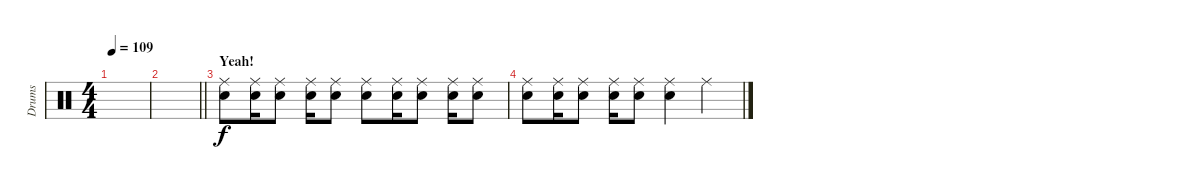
\track ("Drums" "Drums") {instrument percussion}
\staff {score}
\articulation defaults
\ts (4 4)
\tempo 109
\clef neutral
\ks c
|
\barLineRight lightlight
|
\section ("" "Yeah!")
("Ride (middle)" "Electric Snare (hit)").8{volume 4} ("Ride (middle)" "Electric Snare (hit)").16 ("Ride (middle)" "Electric Snare (hit)").8 ("Ride (middle)" "Electric Snare (hit)").16 ("Ride (middle)" "Electric Snare (hit)").8 ("Ride (middle)" "Electric Snare (hit)").8 ("Ride (middle)" "Electric Snare (hit)").16 ("Ride (middle)" "Electric Snare (hit)").8 ("Ride (middle)" "Electric Snare (hit)").16 ("Ride (middle)" "Electric Snare (hit)").8 |
("Ride (middle)" "Electric Snare (hit)").8 ("Ride (middle)" "Electric Snare (hit)").16 ("Ride (middle)" "Electric Snare (hit)").8 ("Ride (middle)" "Electric Snare (hit)").16 ("Ride (middle)" "Electric Snare (hit)").8 ("Ride (middle)" "Electric Snare (hit)").4 "Ride (middle)".4
